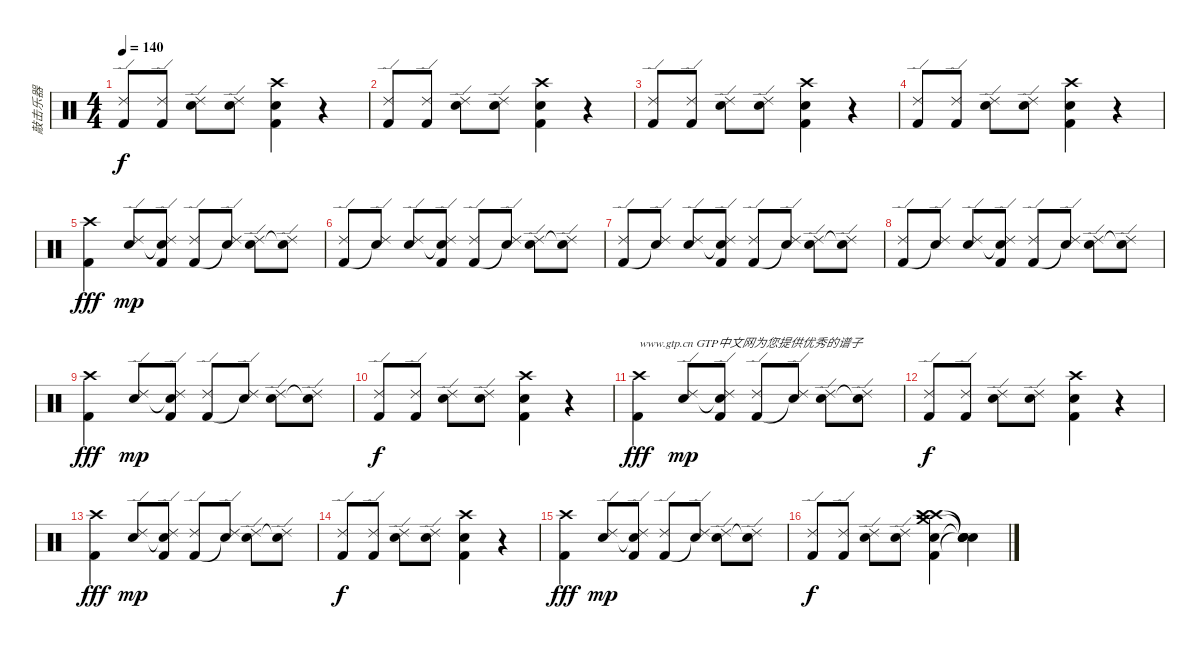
\track ("敲击乐器" "敲击乐器") {instrument percussion}
\staff {score}
\articulation defaults
\ts (4 4)
\tempo 140
\clef neutral
\ks c
("Kick (hit) 2" "Ride (edge) 2").8{dy f} ("Kick (hit) 2" "Ride (edge) 2").8 ("Snare (hit) 2" "Ride (edge) 2").8 ("Snare (hit) 2" "Ride (edge) 2").8 ("Crash high (hit)" "Snare (hit) 2" "Kick (hit) 2").4 r.4 |
("Kick (hit) 2" "Ride (edge) 2").8 ("Kick (hit) 2" "Ride (edge) 2").8 ("Snare (hit) 2" "Ride (edge) 2").8 ("Snare (hit) 2" "Ride (edge) 2").8 ("Crash high (hit)" "Snare (hit) 2" "Kick (hit) 2").4 r.4 |
("Kick (hit) 2" "Ride (edge) 2").8 ("Kick (hit) 2" "Ride (edge) 2").8 ("Snare (hit) 2" "Ride (edge) 2").8 ("Snare (hit) 2" "Ride (edge) 2").8 ("Crash high (hit)" "Snare (hit) 2" "Kick (hit) 2").4 r.4 |
("Kick (hit) 2" "Ride (edge) 2").8 ("Kick (hit) 2" "Ride (edge) 2").8 ("Snare (hit) 2" "Ride (edge) 2").8 ("Snare (hit) 2" "Ride (edge) 2").8 ("Crash high (hit)" "Snare (hit) 2" "Kick (hit) 2").4 r.4 |
("Kick (hit) 2" "Crash high (hit)").4{dy fff} ("Electric Snare (hit)" "Ride (edge) 2").8{dy mp} ("Snare (hit)"{t} "Kick (hit) 2" "Ride (edge) 2").8 ("Kick (hit) 2" "Ride (edge) 2").8 ("Snare (hit)"{t} "Ride (edge) 2").8 ("Electric Snare (hit)" "Ride (edge) 2").8 ("Snare (hit)"{t} "Ride (edge) 2").8 |
("Kick (hit) 2" "Ride (edge) 2").8 ("Snare (hit)"{t} "Ride (edge) 2").8 ("Electric Snare (hit)" "Ride (edge) 2").8 ("Snare (hit)"{t} "Kick (hit) 2" "Ride (edge) 2").8 ("Kick (hit) 2" "Ride (edge) 2").8 ("Snare (hit)"{t} "Ride (edge) 2").8 ("Electric Snare (hit)" "Ride (edge) 2").8 ("Snare (hit)"{t} "Ride (edge) 2").8 |
("Kick (hit) 2" "Ride (edge) 2").8 ("Snare (hit)"{t} "Ride (edge) 2").8 ("Electric Snare (hit)" "Ride (edge) 2").8 ("Snare (hit)"{t} "Kick (hit) 2" "Ride (edge) 2").8 ("Kick (hit) 2" "Ride (edge) 2").8 ("Snare (hit)"{t} "Ride (edge) 2").8 ("Electric Snare (hit)" "Ride (edge) 2").8 ("Snare (hit)"{t} "Ride (edge) 2").8 |
("Kick (hit) 2" "Ride (edge) 2").8 ("Snare (hit)"{t} "Ride (edge) 2").8 ("Electric Snare (hit)" "Ride (edge) 2").8 ("Snare (hit)"{t} "Kick (hit) 2" "Ride (edge) 2").8 ("Kick (hit) 2" "Ride (edge) 2").8 ("Snare (hit)"{t} "Ride (edge) 2").8 ("Electric Snare (hit)" "Ride (edge) 2").8 ("Snare (hit)"{t} "Ride (edge) 2").8 |
("Kick (hit) 2" "Crash high (hit)").4{dy fff} ("Electric Snare (hit)" "Ride (edge) 2").8{dy mp} ("Snare (hit)"{t} "Kick (hit) 2" "Ride (edge) 2").8 ("Kick (hit) 2" "Ride (edge) 2").8 ("Snare (hit)"{t} "Ride (edge) 2").8 ("Electric Snare (hit)" "Ride (edge) 2").8 ("Snare (hit)"{t} "Ride (edge) 2").8 |
("Kick (hit) 2" "Ride (edge) 2").8{dy f} ("Kick (hit) 2" "Ride (edge) 2").8 ("Snare (hit) 2" "Ride (edge) 2").8 ("Snare (hit) 2" "Ride (edge) 2").8 ("Crash high (hit)" "Snare (hit) 2" "Kick (hit) 2").4 r.4 |
("Kick (hit) 2" "Crash high (hit)").4{txt "www.gtp.cn GTP中文网为您提供优秀的谱子" dy fff} ("Electric Snare (hit)" "Ride (edge) 2").8{dy mp} ("Snare (hit)"{t} "Kick (hit) 2" "Ride (edge) 2").8 ("Kick (hit) 2" "Ride (edge) 2").8 ("Snare (hit)"{t} "Ride (edge) 2").8 ("Electric Snare (hit)" "Ride (edge) 2").8 ("Snare (hit)"{t} "Ride (edge) 2").8 |
("Kick (hit) 2" "Ride (edge) 2").8{dy f} ("Kick (hit) 2" "Ride (edge) 2").8 ("Snare (hit) 2" "Ride (edge) 2").8 ("Snare (hit) 2" "Ride (edge) 2").8 ("Crash high (hit)" "Snare (hit) 2" "Kick (hit) 2").4 r.4 |
("Kick (hit) 2" "Crash high (hit)").4{dy fff} ("Electric Snare (hit)" "Ride (edge) 2").8{dy mp} ("Snare (hit)"{t} "Kick (hit) 2" "Ride (edge) 2").8 ("Kick (hit) 2" "Ride (edge) 2").8 ("Snare (hit)"{t} "Ride (edge) 2").8 ("Electric Snare (hit)" "Ride (edge) 2").8 ("Snare (hit)"{t} "Ride (edge) 2").8 |
("Kick (hit) 2" "Ride (edge) 2").8{dy f} ("Kick (hit) 2" "Ride (edge) 2").8 ("Snare (hit) 2" "Ride (edge) 2").8 ("Snare (hit) 2" "Ride (edge) 2").8 ("Crash high (hit)" "Snare (hit) 2" "Kick (hit) 2").4 r.4 |
("Kick (hit) 2" "Crash high (hit)").4{dy fff} ("Electric Snare (hit)" "Ride (edge) 2").8{dy mp} ("Snare (hit)"{t} "Kick (hit) 2" "Ride (edge) 2").8 ("Kick (hit) 2" "Ride (edge) 2").8 ("Snare (hit)"{t} "Ride (edge) 2").8 ("Electric Snare (hit)" "Ride (edge) 2").8 ("Snare (hit)"{t} "Ride (edge) 2").8 |
("Kick (hit) 2" "Ride (edge) 2").8{dy f} ("Kick (hit) 2" "Ride (edge) 2").8 ("Snare (hit) 2" "Ride (edge) 2").8 ("Snare (hit) 2" "Ride (edge) 2").8 ("Crash high (hit)" "Crash medium (hit)" "Snare (hit) 2" "Kick (hit) 2" "Crash high (hit)").4 ("Snare (hit)"{t} "Snare (hit)"{t} "Snare (hit)"{t} "Snare (hit)"{t}).4
